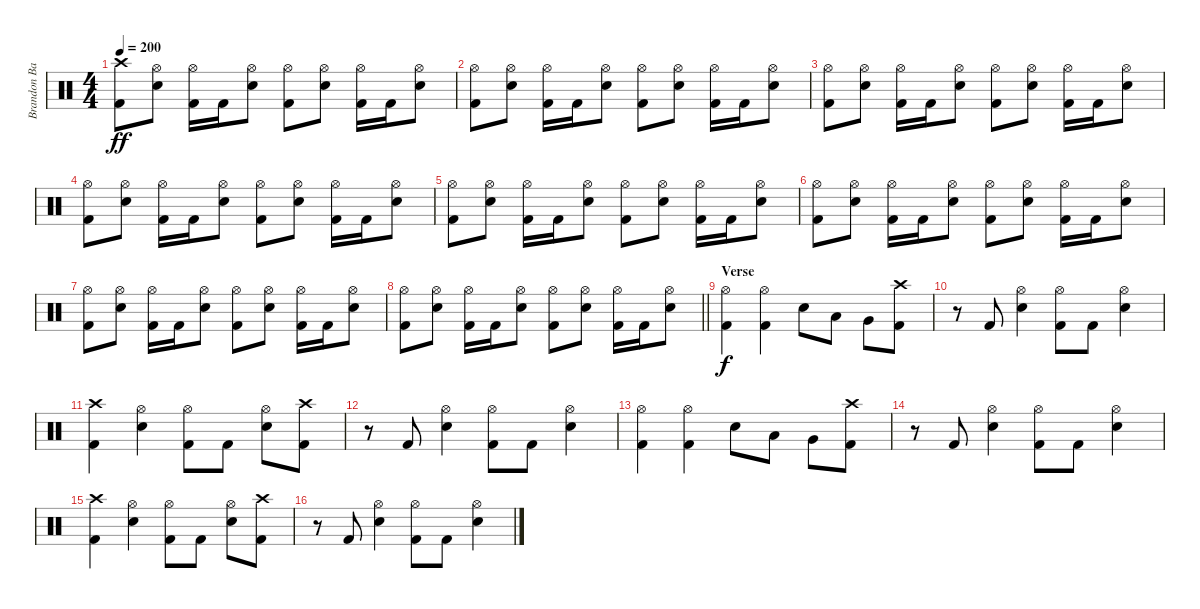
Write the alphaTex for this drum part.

\track ("Brandon Barnes - Drums" "Brandon Ba") {instrument percussion}
\staff {score}
\articulation defaults
\ts (4 4)
\tempo 200
\clef neutral
\ks c
("Kick (hit) 2" "Crash high (hit)").8{dy ff} ("Snare (hit) 2" "Hi-Hat (open)").8 ("Kick (hit) 2" "Hi-Hat (open)").16 "Kick (hit) 2".16 ("Snare (hit) 2" "Hi-Hat (open)").8 ("Kick (hit) 2" "Hi-Hat (open)").8 ("Snare (hit) 2" "Hi-Hat (open)").8 ("Kick (hit) 2" "Hi-Hat (open)").16 "Kick (hit) 2".16 ("Snare (hit) 2" "Hi-Hat (open)").8 |
("Kick (hit) 2" "Hi-Hat (open)").8 ("Snare (hit) 2" "Hi-Hat (open)").8 ("Kick (hit) 2" "Hi-Hat (open)").16 "Kick (hit) 2".16 ("Snare (hit) 2" "Hi-Hat (open)").8 ("Kick (hit) 2" "Hi-Hat (open)").8 ("Snare (hit) 2" "Hi-Hat (open)").8 ("Kick (hit) 2" "Hi-Hat (open)").16 "Kick (hit) 2".16 ("Snare (hit) 2" "Hi-Hat (open)").8 |
("Kick (hit) 2" "Hi-Hat (open)").8 ("Snare (hit) 2" "Hi-Hat (open)").8 ("Kick (hit) 2" "Hi-Hat (open)").16 "Kick (hit) 2".16 ("Snare (hit) 2" "Hi-Hat (open)").8 ("Kick (hit) 2" "Hi-Hat (open)").8 ("Snare (hit) 2" "Hi-Hat (open)").8 ("Kick (hit) 2" "Hi-Hat (open)").16 "Kick (hit) 2".16 ("Snare (hit) 2" "Hi-Hat (open)").8 |
("Kick (hit) 2" "Hi-Hat (open)").8 ("Snare (hit) 2" "Hi-Hat (open)").8 ("Kick (hit) 2" "Hi-Hat (open)").16 "Kick (hit) 2".16 ("Snare (hit) 2" "Hi-Hat (open)").8 ("Kick (hit) 2" "Hi-Hat (open)").8 ("Snare (hit) 2" "Hi-Hat (open)").8 ("Kick (hit) 2" "Hi-Hat (open)").16 "Kick (hit) 2".16 ("Snare (hit) 2" "Hi-Hat (open)").8 |
("Kick (hit) 2" "Hi-Hat (open)").8 ("Snare (hit) 2" "Hi-Hat (open)").8 ("Kick (hit) 2" "Hi-Hat (open)").16 "Kick (hit) 2".16 ("Snare (hit) 2" "Hi-Hat (open)").8 ("Kick (hit) 2" "Hi-Hat (open)").8 ("Snare (hit) 2" "Hi-Hat (open)").8 ("Kick (hit) 2" "Hi-Hat (open)").16 "Kick (hit) 2".16 ("Snare (hit) 2" "Hi-Hat (open)").8 |
("Kick (hit) 2" "Hi-Hat (open)").8 ("Snare (hit) 2" "Hi-Hat (open)").8 ("Kick (hit) 2" "Hi-Hat (open)").16 "Kick (hit) 2".16 ("Snare (hit) 2" "Hi-Hat (open)").8 ("Kick (hit) 2" "Hi-Hat (open)").8 ("Snare (hit) 2" "Hi-Hat (open)").8 ("Kick (hit) 2" "Hi-Hat (open)").16 "Kick (hit) 2".16 ("Snare (hit) 2" "Hi-Hat (open)").8 |
("Kick (hit) 2" "Hi-Hat (open)").8 ("Snare (hit) 2" "Hi-Hat (open)").8 ("Kick (hit) 2" "Hi-Hat (open)").16 "Kick (hit) 2".16 ("Snare (hit) 2" "Hi-Hat (open)").8 ("Kick (hit) 2" "Hi-Hat (open)").8 ("Snare (hit) 2" "Hi-Hat (open)").8 ("Kick (hit) 2" "Hi-Hat (open)").16 "Kick (hit) 2".16 ("Snare (hit) 2" "Hi-Hat (open)").8 |
\barLineRight lightlight
("Kick (hit) 2" "Hi-Hat (open)").8 ("Snare (hit) 2" "Hi-Hat (open)").8 ("Kick (hit) 2" "Hi-Hat (open)").16 "Kick (hit) 2".16 ("Snare (hit) 2" "Hi-Hat (open)").8 ("Kick (hit) 2" "Hi-Hat (open)").8 ("Snare (hit) 2" "Hi-Hat (open)").8 ("Kick (hit) 2" "Hi-Hat (open)").16 "Kick (hit) 2".16 ("Snare (hit) 2" "Hi-Hat (open)").8 |
\section ("" "Verse")
("Hi-Hat (open)" "Kick (hit) 2").4{dy f} ("Hi-Hat (open)" "Kick (hit) 2").4 "Electric Snare (hit)".8 "Low Tom (hit)".8 "Very Low Tom (hit)".8 ("Crash high (hit)" "Kick (hit) 2").8 |
r.8 "Kick (hit) 2".8 ("Hi-Hat (open)" "Electric Snare (hit)").4 ("Hi-Hat (open)" "Kick (hit) 2").8 "Kick (hit) 2".8 ("Hi-Hat (open)" "Electric Snare (hit)").4 |
("Crash high (hit)" "Kick (hit) 2").4 ("Hi-Hat (open)" "Electric Snare (hit)").4 ("Hi-Hat (open)" "Kick (hit) 2").8 "Kick (hit) 2".8 ("Hi-Hat (open)" "Electric Snare (hit)").8 ("Crash high (hit)" "Kick (hit) 2").8 |
r.8 "Kick (hit) 2".8 ("Hi-Hat (open)" "Electric Snare (hit)").4 ("Hi-Hat (open)" "Kick (hit) 2").8 "Kick (hit) 2".8 ("Hi-Hat (open)" "Electric Snare (hit)").4 |
("Hi-Hat (open)" "Kick (hit) 2").4 ("Hi-Hat (open)" "Kick (hit) 2").4 "Electric Snare (hit)".8 "Low Tom (hit)".8 "Very Low Tom (hit)".8 ("Crash high (hit)" "Kick (hit) 2").8 |
r.8 "Kick (hit) 2".8 ("Hi-Hat (open)" "Electric Snare (hit)").4 ("Hi-Hat (open)" "Kick (hit) 2").8 "Kick (hit) 2".8 ("Hi-Hat (open)" "Electric Snare (hit)").4 |
("Crash high (hit)" "Kick (hit) 2").4 ("Hi-Hat (open)" "Electric Snare (hit)").4 ("Hi-Hat (open)" "Kick (hit) 2").8 "Kick (hit) 2".8 ("Hi-Hat (open)" "Electric Snare (hit)").8 ("Crash high (hit)" "Kick (hit) 2").8 |
r.8 "Kick (hit) 2".8 ("Hi-Hat (open)" "Electric Snare (hit)").4 ("Hi-Hat (open)" "Kick (hit) 2").8 "Kick (hit) 2".8 ("Hi-Hat (open)" "Electric Snare (hit)").4
